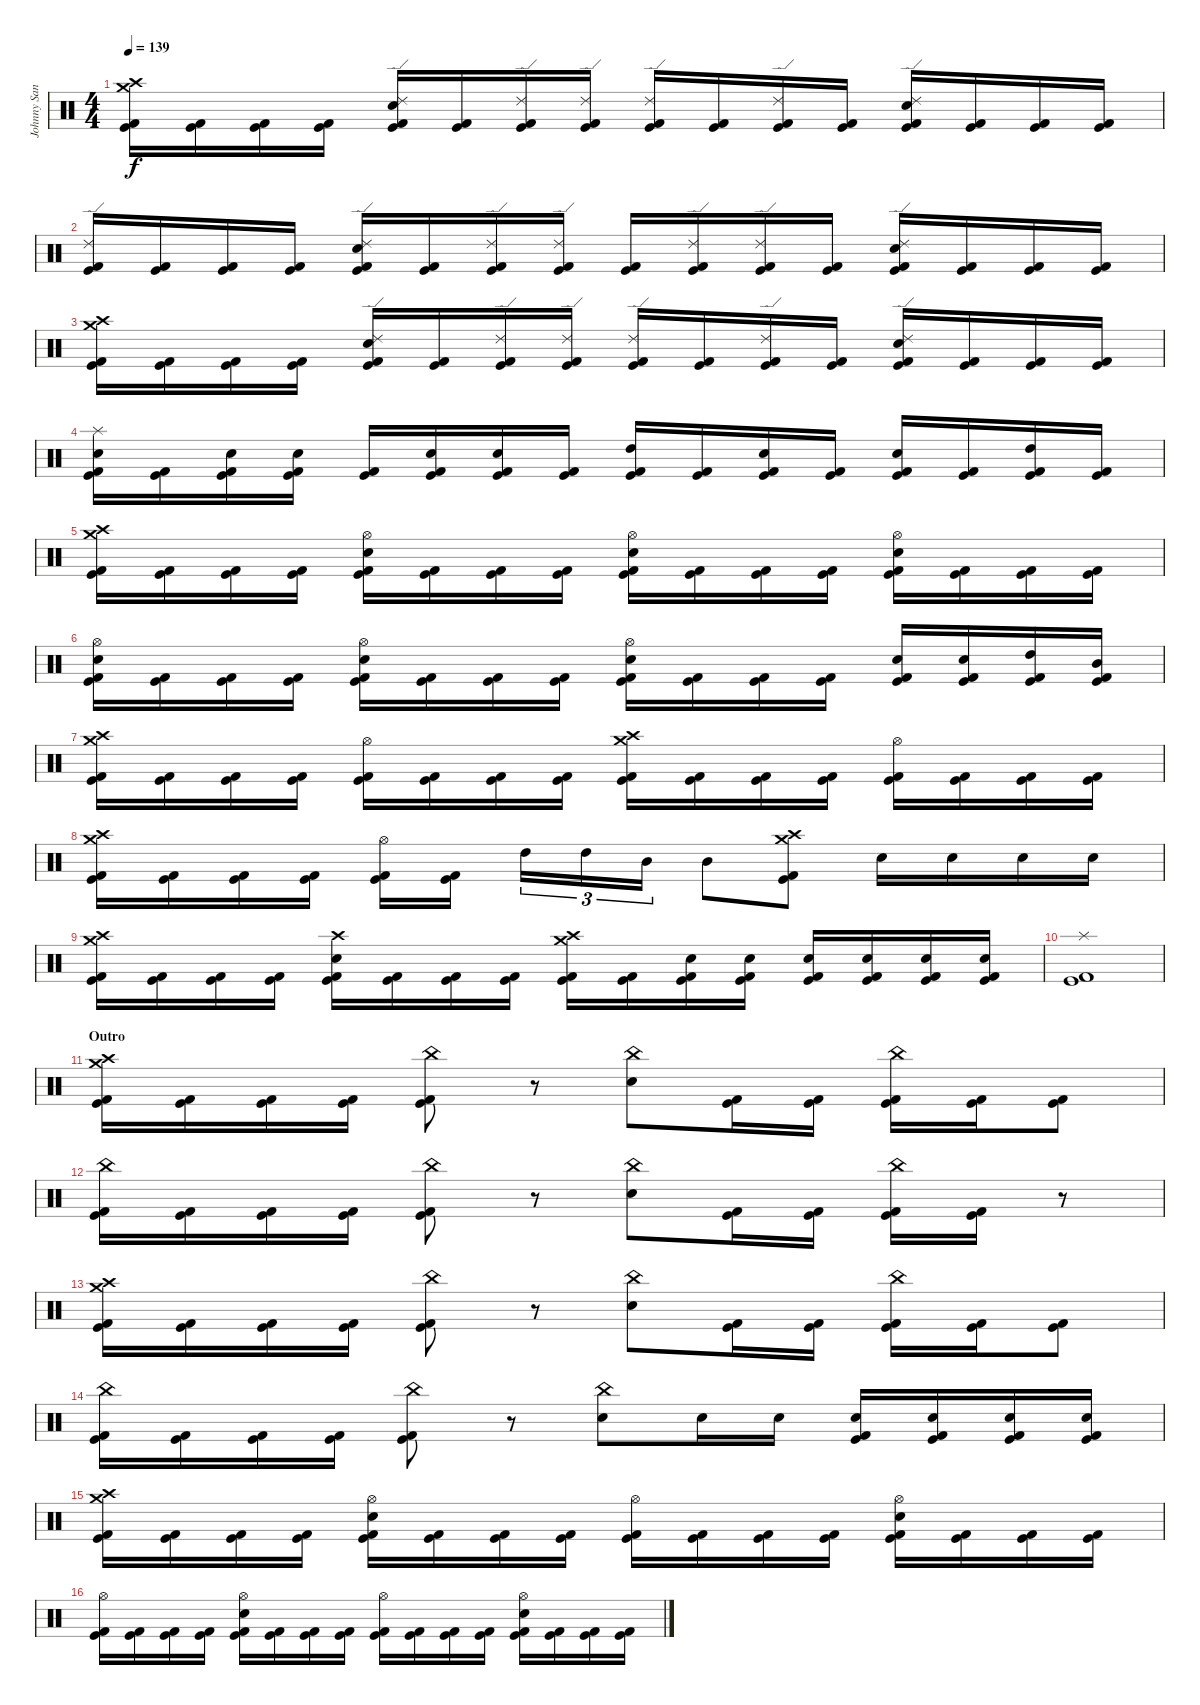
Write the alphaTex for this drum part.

\track ("Johnny Sandin" "Johnny San") {instrument percussion}
\staff {score}
\articulation defaults
\ts (4 4)
\tempo 139
\clef neutral
\ks c
("Crash medium (hit)" "Crash high (hit)" "Kick (hit) 2" "Kick (hit)").16{dy f} ("Kick (hit) 2" "Kick (hit)").16 ("Kick (hit) 2" "Kick (hit)").16 ("Kick (hit) 2" "Kick (hit)").16 ("Ride (edge) 2" "Snare (hit) 2" "Kick (hit) 2" "Kick (hit)").16 ("Kick (hit) 2" "Kick (hit)").16 ("Ride (edge) 2" "Kick (hit) 2" "Kick (hit)").16 ("Ride (edge) 2" "Kick (hit) 2" "Kick (hit)").16 ("Ride (edge) 2" "Kick (hit) 2" "Kick (hit)").16 ("Kick (hit) 2" "Kick (hit)").16 ("Ride (edge) 2" "Kick (hit) 2" "Kick (hit)").16 ("Kick (hit) 2" "Kick (hit)").16 ("Ride (edge) 2" "Snare (hit) 2" "Kick (hit) 2" "Kick (hit)").16 ("Kick (hit) 2" "Kick (hit)").16 ("Kick (hit) 2" "Kick (hit)").16 ("Kick (hit) 2" "Kick (hit)").16 |
("Ride (edge) 2" "Kick (hit) 2" "Kick (hit)").16 ("Kick (hit) 2" "Kick (hit)").16 ("Kick (hit) 2" "Kick (hit)").16 ("Kick (hit) 2" "Kick (hit)").16 ("Ride (edge) 2" "Snare (hit) 2" "Kick (hit) 2" "Kick (hit)").16 ("Kick (hit) 2" "Kick (hit)").16 ("Ride (edge) 2" "Kick (hit) 2" "Kick (hit)").16 ("Ride (edge) 2" "Kick (hit) 2" "Kick (hit)").16 ("Kick (hit) 2" "Kick (hit)").16 ("Ride (edge) 2" "Kick (hit) 2" "Kick (hit)").16 ("Ride (edge) 2" "Kick (hit) 2" "Kick (hit)").16 ("Kick (hit) 2" "Kick (hit)").16 ("Ride (edge) 2" "Snare (hit) 2" "Kick (hit) 2" "Kick (hit)").16 ("Kick (hit) 2" "Kick (hit)").16 ("Kick (hit) 2" "Kick (hit)").16 ("Kick (hit) 2" "Kick (hit)").16 |
("Crash medium (hit)" "Crash high (hit)" "Kick (hit) 2" "Kick (hit)").16 ("Kick (hit) 2" "Kick (hit)").16 ("Kick (hit) 2" "Kick (hit)").16 ("Kick (hit) 2" "Kick (hit)").16 ("Ride (edge) 2" "Snare (hit) 2" "Kick (hit) 2" "Kick (hit)").16 ("Kick (hit) 2" "Kick (hit)").16 ("Ride (edge) 2" "Kick (hit) 2" "Kick (hit)").16 ("Ride (edge) 2" "Kick (hit) 2" "Kick (hit)").16 ("Ride (edge) 2" "Kick (hit) 2" "Kick (hit)").16 ("Kick (hit) 2" "Kick (hit)").16 ("Ride (edge) 2" "Kick (hit) 2" "Kick (hit)").16 ("Kick (hit) 2" "Kick (hit)").16 ("Ride (edge) 2" "Snare (hit) 2" "Kick (hit) 2" "Kick (hit)").16 ("Kick (hit) 2" "Kick (hit)").16 ("Kick (hit) 2" "Kick (hit)").16 ("Kick (hit) 2" "Kick (hit)").16 |
("Splash (hit)" "Snare (hit) 2" "Kick (hit) 2" "Kick (hit)").16 ("Kick (hit) 2" "Kick (hit)").16 ("Snare (hit) 2" "Kick (hit) 2" "Kick (hit)").16 ("Snare (hit) 2" "Kick (hit) 2" "Kick (hit)").16 ("Kick (hit) 2" "Kick (hit)").16 ("Snare (hit) 2" "Kick (hit) 2" "Kick (hit)").16 ("Snare (hit) 2" "Kick (hit) 2" "Kick (hit)").16 ("Kick (hit) 2" "Kick (hit)").16 ("High Tom (hit)" "Kick (hit) 2" "Kick (hit)").16 ("Kick (hit) 2" "Kick (hit)").16 ("Snare (hit) 2" "Kick (hit) 2" "Kick (hit)").16 ("Kick (hit) 2" "Kick (hit)").16 ("Snare (hit) 2" "Kick (hit) 2" "Kick (hit)").16 ("Kick (hit) 2" "Kick (hit)").16 ("High Tom (hit)" "Kick (hit) 2" "Kick (hit)").16 ("Kick (hit) 2" "Kick (hit)").16 |
("Crash medium (hit)" "Crash high (hit)" "Kick (hit) 2" "Kick (hit)").16 ("Kick (hit) 2" "Kick (hit)").16 ("Kick (hit) 2" "Kick (hit)").16 ("Kick (hit) 2" "Kick (hit)").16 ("Hi-Hat (open)" "Snare (hit) 2" "Kick (hit) 2" "Kick (hit)").16 ("Kick (hit) 2" "Kick (hit)").16 ("Kick (hit) 2" "Kick (hit)").16 ("Kick (hit) 2" "Kick (hit)").16 ("Hi-Hat (open)" "Snare (hit) 2" "Kick (hit) 2" "Kick (hit)").16 ("Kick (hit) 2" "Kick (hit)").16 ("Kick (hit) 2" "Kick (hit)").16 ("Kick (hit) 2" "Kick (hit)").16 ("Hi-Hat (open)" "Snare (hit) 2" "Kick (hit) 2" "Kick (hit)").16 ("Kick (hit) 2" "Kick (hit)").16 ("Kick (hit) 2" "Kick (hit)").16 ("Kick (hit) 2" "Kick (hit)").16 |
("Hi-Hat (open)" "Snare (hit) 2" "Kick (hit) 2" "Kick (hit)").16 ("Kick (hit) 2" "Kick (hit)").16 ("Kick (hit) 2" "Kick (hit)").16 ("Kick (hit) 2" "Kick (hit)").16 ("Hi-Hat (open)" "Snare (hit) 2" "Kick (hit) 2" "Kick (hit)").16 ("Kick (hit) 2" "Kick (hit)").16 ("Kick (hit) 2" "Kick (hit)").16 ("Kick (hit) 2" "Kick (hit)").16 ("Hi-Hat (open)" "Snare (hit) 2" "Kick (hit) 2" "Kick (hit)").16 ("Kick (hit) 2" "Kick (hit)").16 ("Kick (hit) 2" "Kick (hit)").16 ("Kick (hit) 2" "Kick (hit)").16 ("Snare (hit) 2" "Kick (hit) 2" "Kick (hit)").16 ("Snare (hit) 2" "Kick (hit) 2" "Kick (hit)").16 ("High Tom (hit)" "Kick (hit) 2" "Kick (hit)").16 ("Mid Tom (hit)" "Kick (hit) 2" "Kick (hit)").16 |
("Crash medium (hit)" "Crash high (hit)" "Kick (hit) 2" "Kick (hit)").16 ("Kick (hit) 2" "Kick (hit)").16 ("Kick (hit) 2" "Kick (hit)").16 ("Kick (hit) 2" "Kick (hit)").16 ("Hi-Hat (open)" "Kick (hit) 2" "Kick (hit)").16 ("Kick (hit) 2" "Kick (hit)").16 ("Kick (hit) 2" "Kick (hit)").16 ("Kick (hit) 2" "Kick (hit)").16 ("Crash medium (hit)" "Crash high (hit)" "Kick (hit) 2" "Kick (hit)").16 ("Kick (hit) 2" "Kick (hit)").16 ("Kick (hit) 2" "Kick (hit)").16 ("Kick (hit) 2" "Kick (hit)").16 ("Hi-Hat (open)" "Kick (hit) 2" "Kick (hit)").16 ("Kick (hit) 2" "Kick (hit)").16 ("Kick (hit) 2" "Kick (hit)").16 ("Kick (hit) 2" "Kick (hit)").16 |
("Crash medium (hit)" "Crash high (hit)" "Kick (hit) 2" "Kick (hit)").16 ("Kick (hit) 2" "Kick (hit)").16 ("Kick (hit) 2" "Kick (hit)").16 ("Kick (hit) 2" "Kick (hit)").16 ("Hi-Hat (open)" "Kick (hit) 2" "Kick (hit)").16 ("Kick (hit) 2" "Kick (hit)").16 "High Tom (hit)".16{tu (3 2)} "High Tom (hit)".16{tu (3 2)} "Mid Tom (hit)".16{tu (3 2)} "Mid Tom (hit)".8 ("Crash medium (hit)" "Crash high (hit)" "Kick (hit) 2" "Kick (hit)").8 "Snare (hit) 2".16 "Snare (hit) 2".16 "Snare (hit) 2".16 "Snare (hit) 2".16 |
("Crash medium (hit)" "Crash high (hit)" "Kick (hit) 2" "Kick (hit)").16 ("Kick (hit) 2" "Kick (hit)").16 ("Kick (hit) 2" "Kick (hit)").16 ("Kick (hit) 2" "Kick (hit)").16 ("Crash high (hit)" "Snare (hit) 2" "Kick (hit) 2" "Kick (hit)").16 ("Kick (hit) 2" "Kick (hit)").16 ("Kick (hit) 2" "Kick (hit)").16 ("Kick (hit) 2" "Kick (hit)").16 ("Crash medium (hit)" "Crash high (hit)" "Kick (hit) 2" "Kick (hit)").16 ("Kick (hit) 2" "Kick (hit)").16 ("Snare (hit) 2" "Kick (hit) 2" "Kick (hit)").16 ("Snare (hit) 2" "Kick (hit) 2" "Kick (hit)").16 ("Snare (hit) 2" "Kick (hit) 2" "Kick (hit)").16 ("Snare (hit) 2" "Kick (hit) 2" "Kick (hit)").16 ("Snare (hit) 2" "Kick (hit) 2" "Kick (hit)").16 ("Snare (hit) 2" "Kick (hit) 2" "Kick (hit)").16 |
("Splash (hit)" "Kick (hit) 2" "Kick (hit)").1 |
\section ("" "Outro")
("Crash medium (hit)" "Crash high (hit)" "Kick (hit) 2" "Kick (hit)").16 ("Kick (hit) 2" "Kick (hit)").16 ("Kick (hit) 2" "Kick (hit)").16 ("Kick (hit) 2" "Kick (hit)").16 ("China (hit)" "Kick (hit) 2" "Kick (hit)").8 r.8 ("China (hit)" "Snare (hit) 2").8 ("Kick (hit) 2" "Kick (hit)").16 ("Kick (hit) 2" "Kick (hit)").16 ("China (hit)" "Kick (hit) 2" "Kick (hit)").16 ("Kick (hit) 2" "Kick (hit)").16 ("Kick (hit) 2" "Kick (hit)").8 |
("China (hit)" "Kick (hit) 2" "Kick (hit)").16 ("Kick (hit) 2" "Kick (hit)").16 ("Kick (hit) 2" "Kick (hit)").16 ("Kick (hit) 2" "Kick (hit)").16 ("China (hit)" "Kick (hit) 2" "Kick (hit)").8 r.8 ("China (hit)" "Snare (hit) 2").8 ("Kick (hit) 2" "Kick (hit)").16 ("Kick (hit) 2" "Kick (hit)").16 ("China (hit)" "Kick (hit) 2" "Kick (hit)").16 ("Kick (hit) 2" "Kick (hit)").16 r.8 |
("Crash medium (hit)" "Crash high (hit)" "Kick (hit) 2" "Kick (hit)").16 ("Kick (hit) 2" "Kick (hit)").16 ("Kick (hit) 2" "Kick (hit)").16 ("Kick (hit) 2" "Kick (hit)").16 ("China (hit)" "Kick (hit) 2" "Kick (hit)").8 r.8 ("China (hit)" "Snare (hit) 2").8 ("Kick (hit) 2" "Kick (hit)").16 ("Kick (hit) 2" "Kick (hit)").16 ("China (hit)" "Kick (hit) 2" "Kick (hit)").16 ("Kick (hit) 2" "Kick (hit)").16 ("Kick (hit) 2" "Kick (hit)").8 |
("China (hit)" "Kick (hit) 2" "Kick (hit)").16 ("Kick (hit) 2" "Kick (hit)").16 ("Kick (hit) 2" "Kick (hit)").16 ("Kick (hit) 2" "Kick (hit)").16 ("China (hit)" "Kick (hit) 2" "Kick (hit)").8 r.8 ("China (hit)" "Snare (hit) 2").8 "Snare (hit) 2".16 "Snare (hit) 2".16 ("Snare (hit) 2" "Kick (hit) 2" "Kick (hit)").16 ("Snare (hit) 2" "Kick (hit) 2" "Kick (hit)").16 ("Snare (hit) 2" "Kick (hit) 2" "Kick (hit)").16 ("Snare (hit) 2" "Kick (hit) 2" "Kick (hit)").16 |
("Crash medium (hit)" "Crash high (hit)" "Kick (hit) 2" "Kick (hit)").16 ("Kick (hit) 2" "Kick (hit)").16 ("Kick (hit) 2" "Kick (hit)").16 ("Kick (hit) 2" "Kick (hit)").16 ("Hi-Hat (open)" "Snare (hit) 2" "Kick (hit) 2" "Kick (hit)").16 ("Kick (hit) 2" "Kick (hit)").16 ("Kick (hit) 2" "Kick (hit)").16 ("Kick (hit) 2" "Kick (hit)").16 ("Hi-Hat (open)" "Kick (hit) 2" "Kick (hit)").16 ("Kick (hit) 2" "Kick (hit)").16 ("Kick (hit) 2" "Kick (hit)").16 ("Kick (hit) 2" "Kick (hit)").16 ("Hi-Hat (open)" "Snare (hit) 2" "Kick (hit) 2" "Kick (hit)").16 ("Kick (hit) 2" "Kick (hit)").16 ("Kick (hit) 2" "Kick (hit)").16 ("Kick (hit) 2" "Kick (hit)").16 |
("Hi-Hat (open)" "Kick (hit) 2" "Kick (hit)").16 ("Kick (hit) 2" "Kick (hit)").16 ("Kick (hit) 2" "Kick (hit)").16 ("Kick (hit) 2" "Kick (hit)").16 ("Hi-Hat (open)" "Snare (hit) 2" "Kick (hit) 2" "Kick (hit)").16 ("Kick (hit) 2" "Kick (hit)").16 ("Kick (hit) 2" "Kick (hit)").16 ("Kick (hit) 2" "Kick (hit)").16 ("Hi-Hat (open)" "Kick (hit) 2" "Kick (hit)").16 ("Kick (hit) 2" "Kick (hit)").16 ("Kick (hit) 2" "Kick (hit)").16 ("Kick (hit) 2" "Kick (hit)").16 ("Hi-Hat (open)" "Snare (hit) 2" "Kick (hit) 2" "Kick (hit)").16 ("Kick (hit) 2" "Kick (hit)").16 ("Kick (hit) 2" "Kick (hit)").16 ("Kick (hit) 2" "Kick (hit)").16
